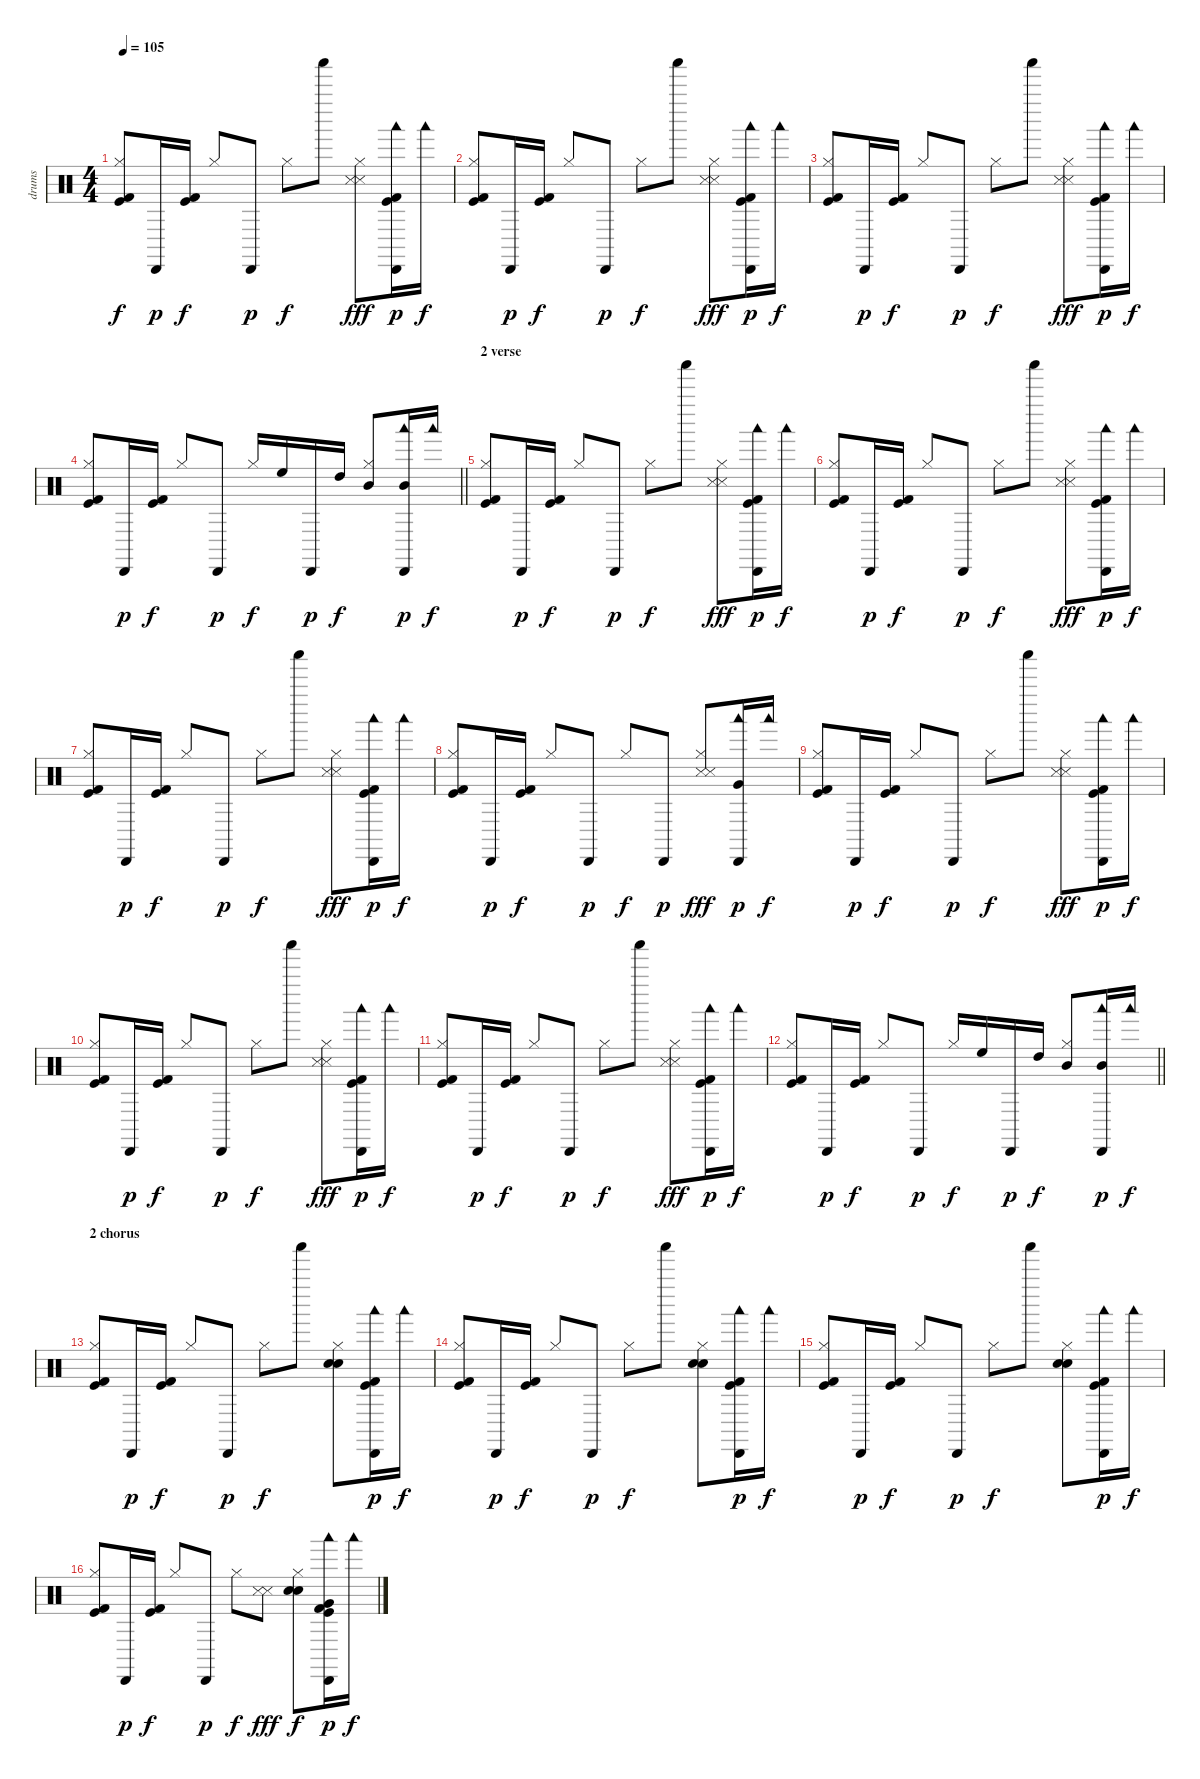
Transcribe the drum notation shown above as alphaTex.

\track ("drums" "drums") {instrument percussion}
\staff {score}
\articulation defaults
\ts (4 4)
\tempo 105
\clef neutral
\ks c
("Hi-Hat (closed)" "Kick (hit)" "Kick (hit) 2").8{dy f} "Cabasa (hit)".16{dy p} ("Kick (hit)" "Kick (hit) 2").16{dy f} "Hi-Hat (closed)".8 "Cabasa (hit)".8{dy p} "Hi-Hat (closed)".8{dy f} "Shaker (hit)".8 ("Hi-Hat (closed)" "Snare (side stick) 3" "Snare (side stick) 3").8{dy fff} ("Cabasa (hit)" "Woodblock low (hit)" "Kick (hit)" "Kick (hit) 2").16{dy p} "Woodblock low (hit)".16{dy f} |
("Hi-Hat (closed)" "Kick (hit)" "Kick (hit) 2").8 "Cabasa (hit)".16{dy p} ("Kick (hit)" "Kick (hit) 2").16{dy f} "Hi-Hat (closed)".8 "Cabasa (hit)".8{dy p} "Hi-Hat (closed)".8{dy f} "Shaker (hit)".8 ("Hi-Hat (closed)" "Snare (side stick) 3" "Snare (side stick) 3").8{dy fff} ("Cabasa (hit)" "Woodblock low (hit)" "Kick (hit)" "Kick (hit) 2").16{dy p} "Woodblock low (hit)".16{dy f} |
("Hi-Hat (closed)" "Kick (hit)" "Kick (hit) 2").8 "Cabasa (hit)".16{dy p} ("Kick (hit)" "Kick (hit) 2").16{dy f} "Hi-Hat (closed)".8 "Cabasa (hit)".8{dy p} "Hi-Hat (closed)".8{dy f} "Shaker (hit)".8 ("Hi-Hat (closed)" "Snare (side stick) 3" "Snare (side stick) 3").8{dy fff} ("Cabasa (hit)" "Woodblock low (hit)" "Kick (hit)" "Kick (hit) 2").16{dy p} "Woodblock low (hit)".16{dy f} |
\barLineRight lightlight
("Hi-Hat (closed)" "Kick (hit)" "Kick (hit) 2").8 "Cabasa (hit)".16{dy p} ("Kick (hit)" "Kick (hit) 2").16{dy f} "Hi-Hat (closed)".8 "Cabasa (hit)".8{dy p} "Hi-Hat (closed)".16{dy f} "High Floor Tom (hit)".16{balance 2} "Cabasa (hit)".16{dy p} "High Tom (hit)".16{dy f} ("Hi-Hat (closed)" "Mid Tom (hit)").8{balance 14} ("Cabasa (hit)" "Woodblock low (hit)" "Mid Tom (hit)").16{dy p} "Woodblock low (hit)".16{dy f} |
\section ("" "2 verse")
("Hi-Hat (closed)" "Kick (hit)" "Kick (hit) 2").8{balance 8} "Cabasa (hit)".16{dy p} ("Kick (hit)" "Kick (hit) 2").16{dy f} "Hi-Hat (closed)".8 "Cabasa (hit)".8{dy p} "Hi-Hat (closed)".8{dy f} "Shaker (hit)".8 ("Hi-Hat (closed)" "Snare (side stick) 3" "Snare (side stick) 3").8{dy fff} ("Cabasa (hit)" "Woodblock low (hit)" "Kick (hit)" "Kick (hit) 2").16{dy p} "Woodblock low (hit)".16{dy f} |
("Hi-Hat (closed)" "Kick (hit)" "Kick (hit) 2").8 "Cabasa (hit)".16{dy p} ("Kick (hit)" "Kick (hit) 2").16{dy f} "Hi-Hat (closed)".8 "Cabasa (hit)".8{dy p} "Hi-Hat (closed)".8{dy f} "Shaker (hit)".8 ("Hi-Hat (closed)" "Snare (side stick) 3" "Snare (side stick) 3").8{dy fff} ("Cabasa (hit)" "Woodblock low (hit)" "Kick (hit)" "Kick (hit) 2").16{dy p} "Woodblock low (hit)".16{dy f} |
("Hi-Hat (closed)" "Kick (hit)" "Kick (hit) 2").8 "Cabasa (hit)".16{dy p} ("Kick (hit)" "Kick (hit) 2").16{dy f} "Hi-Hat (closed)".8 "Cabasa (hit)".8{dy p} "Hi-Hat (closed)".8{dy f} "Shaker (hit)".8 ("Hi-Hat (closed)" "Snare (side stick) 3" "Snare (side stick) 3").8{dy fff} ("Cabasa (hit)" "Woodblock low (hit)" "Kick (hit)" "Kick (hit) 2").16{dy p} "Woodblock low (hit)".16{dy f} |
("Hi-Hat (closed)" "Kick (hit)" "Kick (hit) 2").8 "Cabasa (hit)".16{dy p} ("Kick (hit)" "Kick (hit) 2").16{dy f} "Hi-Hat (closed)".8 "Cabasa (hit)".8{dy p} "Hi-Hat (closed)".8{dy f} "Cabasa (hit)".8{dy p} ("Hi-Hat (closed)" "Snare (side stick) 3" "Snare (side stick) 3").8{dy fff} ("Cabasa (hit)" "Woodblock low (hit)" "Very Low Tom (hit)").16{dy p} "Woodblock low (hit)".16{dy f} |
("Hi-Hat (closed)" "Kick (hit)" "Kick (hit) 2").8 "Cabasa (hit)".16{dy p} ("Kick (hit)" "Kick (hit) 2").16{dy f} "Hi-Hat (closed)".8 "Cabasa (hit)".8{dy p} "Hi-Hat (closed)".8{dy f} "Shaker (hit)".8 ("Hi-Hat (closed)" "Snare (side stick) 3" "Snare (side stick) 3").8{dy fff} ("Cabasa (hit)" "Woodblock low (hit)" "Kick (hit)" "Kick (hit) 2").16{dy p} "Woodblock low (hit)".16{dy f} |
("Hi-Hat (closed)" "Kick (hit)" "Kick (hit) 2").8 "Cabasa (hit)".16{dy p} ("Kick (hit)" "Kick (hit) 2").16{dy f} "Hi-Hat (closed)".8 "Cabasa (hit)".8{dy p} "Hi-Hat (closed)".8{dy f} "Shaker (hit)".8 ("Hi-Hat (closed)" "Snare (side stick) 3" "Snare (side stick) 3").8{dy fff} ("Cabasa (hit)" "Woodblock low (hit)" "Kick (hit)" "Kick (hit) 2").16{dy p} "Woodblock low (hit)".16{dy f} |
("Hi-Hat (closed)" "Kick (hit)" "Kick (hit) 2").8 "Cabasa (hit)".16{dy p} ("Kick (hit)" "Kick (hit) 2").16{dy f} "Hi-Hat (closed)".8 "Cabasa (hit)".8{dy p} "Hi-Hat (closed)".8{dy f} "Shaker (hit)".8 ("Hi-Hat (closed)" "Snare (side stick) 3" "Snare (side stick) 3").8{dy fff} ("Cabasa (hit)" "Woodblock low (hit)" "Kick (hit)" "Kick (hit) 2").16{dy p} "Woodblock low (hit)".16{dy f} |
\barLineRight lightlight
("Hi-Hat (closed)" "Kick (hit)" "Kick (hit) 2").8 "Cabasa (hit)".16{dy p} ("Kick (hit)" "Kick (hit) 2").16{dy f} "Hi-Hat (closed)".8 "Cabasa (hit)".8{dy p} "Hi-Hat (closed)".16{dy f} "High Floor Tom (hit)".16{balance 2} "Cabasa (hit)".16{dy p} "High Tom (hit)".16{dy f} ("Hi-Hat (closed)" "Mid Tom (hit)").8{balance 14} ("Cabasa (hit)" "Woodblock low (hit)" "Mid Tom (hit)").16{dy p} "Woodblock low (hit)".16{dy f} |
\section ("" "2 chorus")
("Hi-Hat (closed)" "Kick (hit)" "Kick (hit) 2").8{balance 8} "Cabasa (hit)".16{dy p} ("Kick (hit)" "Kick (hit) 2").16{dy f} "Hi-Hat (closed)".8 "Cabasa (hit)".8{dy p} "Hi-Hat (closed)".8{dy f} "Shaker (hit)".8 ("Hi-Hat (closed)" "Snare (hit) 2" "Electric Snare (hit)").8{volume 16} ("Cabasa (hit)" "Woodblock low (hit)" "Kick (hit)" "Kick (hit) 2").16{dy p volume 13} "Woodblock low (hit)".16{dy f} |
("Hi-Hat (closed)" "Kick (hit)" "Kick (hit) 2").8{balance 8} "Cabasa (hit)".16{dy p} ("Kick (hit)" "Kick (hit) 2").16{dy f} "Hi-Hat (closed)".8 "Cabasa (hit)".8{dy p} "Hi-Hat (closed)".8{dy f} "Shaker (hit)".8 ("Hi-Hat (closed)" "Snare (hit) 2" "Electric Snare (hit)").8{volume 16} ("Cabasa (hit)" "Woodblock low (hit)" "Kick (hit)" "Kick (hit) 2").16{dy p volume 13} "Woodblock low (hit)".16{dy f} |
("Hi-Hat (closed)" "Kick (hit)" "Kick (hit) 2").8{balance 8} "Cabasa (hit)".16{dy p} ("Kick (hit)" "Kick (hit) 2").16{dy f} "Hi-Hat (closed)".8 "Cabasa (hit)".8{dy p} "Hi-Hat (closed)".8{dy f} "Shaker (hit)".8 ("Hi-Hat (closed)" "Snare (hit) 2" "Electric Snare (hit)").8{volume 16} ("Cabasa (hit)" "Woodblock low (hit)" "Kick (hit)" "Kick (hit) 2").16{dy p volume 13} "Woodblock low (hit)".16{dy f} |
("Hi-Hat (closed)" "Kick (hit)" "Kick (hit) 2").8{balance 8} "Cabasa (hit)".16{dy p} ("Kick (hit)" "Kick (hit) 2").16{dy f} "Hi-Hat (closed)".8 "Cabasa (hit)".8{dy p} "Hi-Hat (closed)".8{dy f} ("Snare (side stick) 3" "Snare (side stick) 3").8{dy fff} ("Hi-Hat (closed)" "Snare (hit) 2" "Electric Snare (hit)").8{dy f volume 16} ("Cabasa (hit)" "Woodblock low (hit)" "Very Low Tom (hit)" "Kick (hit)" "Kick (hit) 2").16{dy p volume 13} "Woodblock low (hit)".16{dy f}
